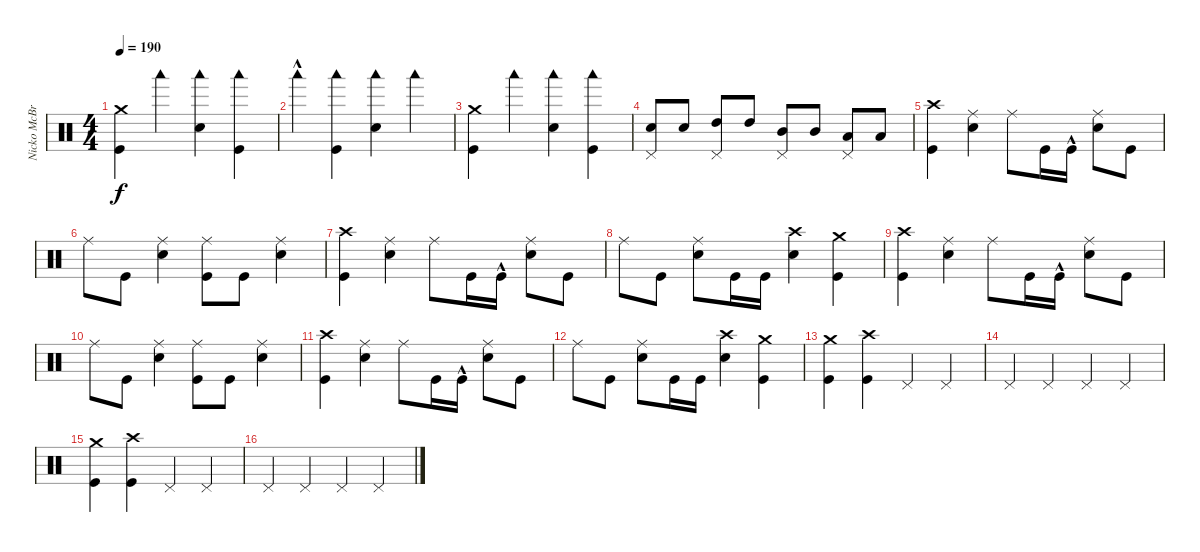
\track ("Nicko McBrain" "Nicko McBr") {instrument percussion}
\staff {score}
\articulation defaults
\ts (4 4)
\tempo 190
\clef neutral
\ks c
("Crash medium (hit)" "Kick (hit)").4{dy f} "Woodblock low (hit)".4 ("Woodblock low (hit)" "Electric Snare (hit)").4 ("Woodblock low (hit)" "Kick (hit)").4 |
"Woodblock low (hit)"{hac}.4 ("Woodblock low (hit)" "Kick (hit)").4 ("Woodblock low (hit)" "Electric Snare (hit)").4 "Woodblock low (hit)".4 |
("Crash medium (hit)" "Kick (hit)").4 "Woodblock low (hit)".4 ("Woodblock low (hit)" "Electric Snare (hit)").4 ("Woodblock low (hit)" "Kick (hit)").4 |
("Electric Snare (hit)" "Pedal Hi-Hat (hit)").8 "Electric Snare (hit)".8 ("High Tom (hit)" "Pedal Hi-Hat (hit)").8 "High Tom (hit)".8 ("Mid Tom (hit)" "Pedal Hi-Hat (hit)").8 "Mid Tom (hit)".8 ("Low Tom (hit)" "Pedal Hi-Hat (hit)").8 "Low Tom (hit)".8 |
("Crash high (hit)" "Kick (hit)").4 ("Ride (middle)" "Electric Snare (hit)").4 "Ride (middle)".8 "Kick (hit)".16 "Kick (hit)"{hac}.16 ("Ride (middle)" "Electric Snare (hit)").8 "Kick (hit)".8 |
"Ride (middle)".8 "Kick (hit)".8 ("Ride (middle)" "Electric Snare (hit)").4 ("Ride (middle)" "Kick (hit)").8 "Kick (hit)".8 ("Ride (middle)" "Electric Snare (hit)").4 |
("Crash high (hit)" "Kick (hit)").4 ("Ride (middle)" "Electric Snare (hit)").4 "Ride (middle)".8 "Kick (hit)".16 "Kick (hit)"{hac}.16 ("Ride (middle)" "Electric Snare (hit)").8 "Kick (hit)".8 |
"Ride (middle)".8 "Kick (hit)".8 ("Ride (middle)" "Electric Snare (hit)").8 "Kick (hit)".16 "Kick (hit)".16 ("Crash high (hit)" "Electric Snare (hit)").4 ("Crash medium (hit)" "Kick (hit)").4 |
("Crash high (hit)" "Kick (hit)").4 ("Ride (middle)" "Electric Snare (hit)").4 "Ride (middle)".8 "Kick (hit)".16 "Kick (hit)"{hac}.16 ("Ride (middle)" "Electric Snare (hit)").8 "Kick (hit)".8 |
"Ride (middle)".8 "Kick (hit)".8 ("Ride (middle)" "Electric Snare (hit)").4 ("Ride (middle)" "Kick (hit)").8 "Kick (hit)".8 ("Ride (middle)" "Electric Snare (hit)").4 |
("Crash high (hit)" "Kick (hit)").4 ("Ride (middle)" "Electric Snare (hit)").4 "Ride (middle)".8 "Kick (hit)".16 "Kick (hit)"{hac}.16 ("Ride (middle)" "Electric Snare (hit)").8 "Kick (hit)".8 |
"Ride (middle)".8 "Kick (hit)".8 ("Ride (middle)" "Electric Snare (hit)").8 "Kick (hit)".16 "Kick (hit)".16 ("Crash high (hit)" "Electric Snare (hit)").4 ("Crash medium (hit)" "Kick (hit)").4 |
("Crash medium (hit)" "Kick (hit)").4 ("Crash high (hit)" "Kick (hit)").4 "Pedal Hi-Hat (hit)".4 "Pedal Hi-Hat (hit)".4 |
"Pedal Hi-Hat (hit)".4 "Pedal Hi-Hat (hit)".4 "Pedal Hi-Hat (hit)".4 "Pedal Hi-Hat (hit)".4 |
("Crash medium (hit)" "Kick (hit)").4 ("Crash high (hit)" "Kick (hit)").4 "Pedal Hi-Hat (hit)".4 "Pedal Hi-Hat (hit)".4 |
"Pedal Hi-Hat (hit)".4 "Pedal Hi-Hat (hit)".4 "Pedal Hi-Hat (hit)".4 "Pedal Hi-Hat (hit)".4
